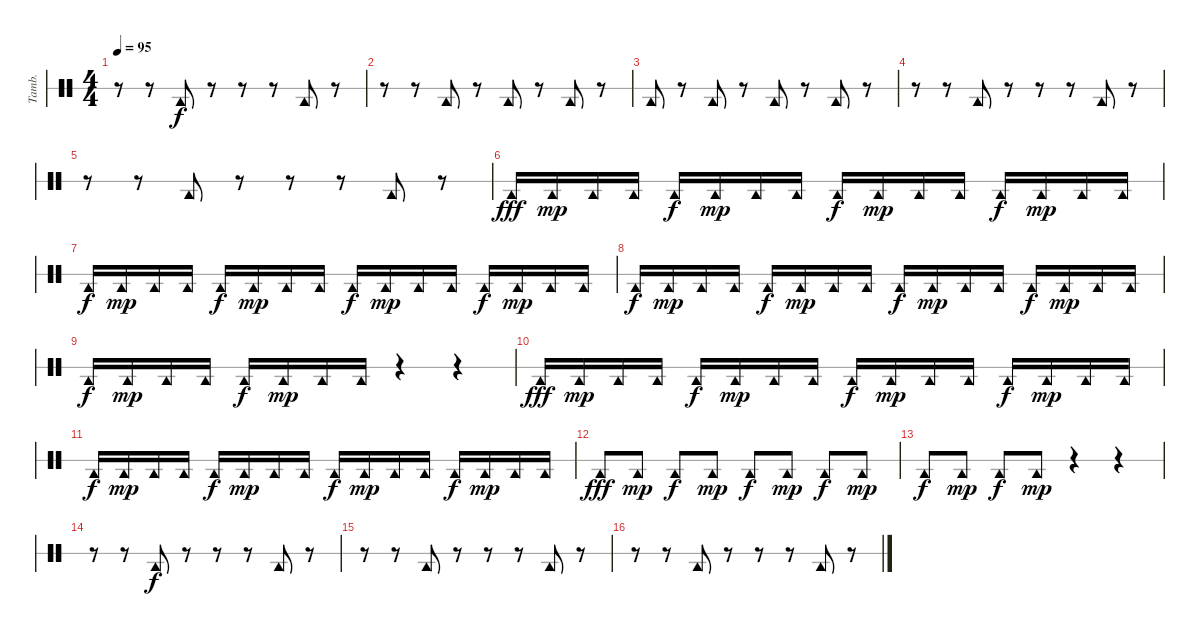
\bracketExtendMode groupsimilarinstruments
\otherSystemsTrackNameOrientation horizontal
\track ("Tambourine" "Tamb.") {instrument percussion}
\staff {score 1}
\articulation defaults
\ts (4 4)
\tempo 95
\clef neutral
\ks c
r.8{dy f} r.8 "Tambourine (hit)".8 r.8 r.8 r.8 "Tambourine (hit)".8 r.8 |
r.8 r.8 "Tambourine (hit)".8 r.8 "Tambourine (hit)".8 r.8 "Tambourine (hit)".8 r.8 |
"Tambourine (hit)".8 r.8 "Tambourine (hit)".8 r.8 "Tambourine (hit)".8 r.8 "Tambourine (hit)".8 r.8 |
r.8 r.8 "Tambourine (hit)".8 r.8 r.8 r.8 "Tambourine (hit)".8 r.8 |
r.8 r.8 "Tambourine (hit)".8 r.8 r.8 r.8 "Tambourine (hit)".8 r.8 |
"Tambourine (hit)".16{dy fff} "Tambourine (hit)".16{dy mp} "Tambourine (hit)".16 "Tambourine (hit)".16 "Tambourine (hit)".16{dy f} "Tambourine (hit)".16{dy mp} "Tambourine (hit)".16 "Tambourine (hit)".16 "Tambourine (hit)".16{dy f} "Tambourine (hit)".16{dy mp} "Tambourine (hit)".16 "Tambourine (hit)".16 "Tambourine (hit)".16{dy f} "Tambourine (hit)".16{dy mp} "Tambourine (hit)".16 "Tambourine (hit)".16 |
"Tambourine (hit)".16{dy f} "Tambourine (hit)".16{dy mp} "Tambourine (hit)".16 "Tambourine (hit)".16 "Tambourine (hit)".16{dy f} "Tambourine (hit)".16{dy mp} "Tambourine (hit)".16 "Tambourine (hit)".16 "Tambourine (hit)".16{dy f} "Tambourine (hit)".16{dy mp} "Tambourine (hit)".16 "Tambourine (hit)".16 "Tambourine (hit)".16{dy f} "Tambourine (hit)".16{dy mp} "Tambourine (hit)".16 "Tambourine (hit)".16 |
"Tambourine (hit)".16{dy f} "Tambourine (hit)".16{dy mp} "Tambourine (hit)".16 "Tambourine (hit)".16 "Tambourine (hit)".16{dy f} "Tambourine (hit)".16{dy mp} "Tambourine (hit)".16 "Tambourine (hit)".16 "Tambourine (hit)".16{dy f} "Tambourine (hit)".16{dy mp} "Tambourine (hit)".16 "Tambourine (hit)".16 "Tambourine (hit)".16{dy f} "Tambourine (hit)".16{dy mp} "Tambourine (hit)".16 "Tambourine (hit)".16 |
"Tambourine (hit)".16{dy f} "Tambourine (hit)".16{dy mp} "Tambourine (hit)".16 "Tambourine (hit)".16 "Tambourine (hit)".16{dy f} "Tambourine (hit)".16{dy mp} "Tambourine (hit)".16 "Tambourine (hit)".16 r.4 r.4 |
"Tambourine (hit)".16{dy fff} "Tambourine (hit)".16{dy mp} "Tambourine (hit)".16 "Tambourine (hit)".16 "Tambourine (hit)".16{dy f} "Tambourine (hit)".16{dy mp} "Tambourine (hit)".16 "Tambourine (hit)".16 "Tambourine (hit)".16{dy f} "Tambourine (hit)".16{dy mp} "Tambourine (hit)".16 "Tambourine (hit)".16 "Tambourine (hit)".16{dy f} "Tambourine (hit)".16{dy mp} "Tambourine (hit)".16 "Tambourine (hit)".16 |
"Tambourine (hit)".16{dy f} "Tambourine (hit)".16{dy mp} "Tambourine (hit)".16 "Tambourine (hit)".16 "Tambourine (hit)".16{dy f} "Tambourine (hit)".16{dy mp} "Tambourine (hit)".16 "Tambourine (hit)".16 "Tambourine (hit)".16{dy f} "Tambourine (hit)".16{dy mp} "Tambourine (hit)".16 "Tambourine (hit)".16 "Tambourine (hit)".16{dy f} "Tambourine (hit)".16{dy mp} "Tambourine (hit)".16 "Tambourine (hit)".16 |
"Tambourine (hit)".8{dy fff} "Tambourine (hit)".8{dy mp} "Tambourine (hit)".8{dy f} "Tambourine (hit)".8{dy mp} "Tambourine (hit)".8{dy f} "Tambourine (hit)".8{dy mp} "Tambourine (hit)".8{dy f} "Tambourine (hit)".8{dy mp} |
"Tambourine (hit)".8{dy f} "Tambourine (hit)".8{dy mp} "Tambourine (hit)".8{dy f} "Tambourine (hit)".8{dy mp} r.4 r.4 |
r.8 r.8 "Tambourine (hit)".8{dy f} r.8 r.8 r.8 "Tambourine (hit)".8 r.8 |
r.8 r.8 "Tambourine (hit)".8 r.8 r.8 r.8 "Tambourine (hit)".8 r.8 |
r.8 r.8 "Tambourine (hit)".8 r.8 r.8 r.8 "Tambourine (hit)".8 r.8
